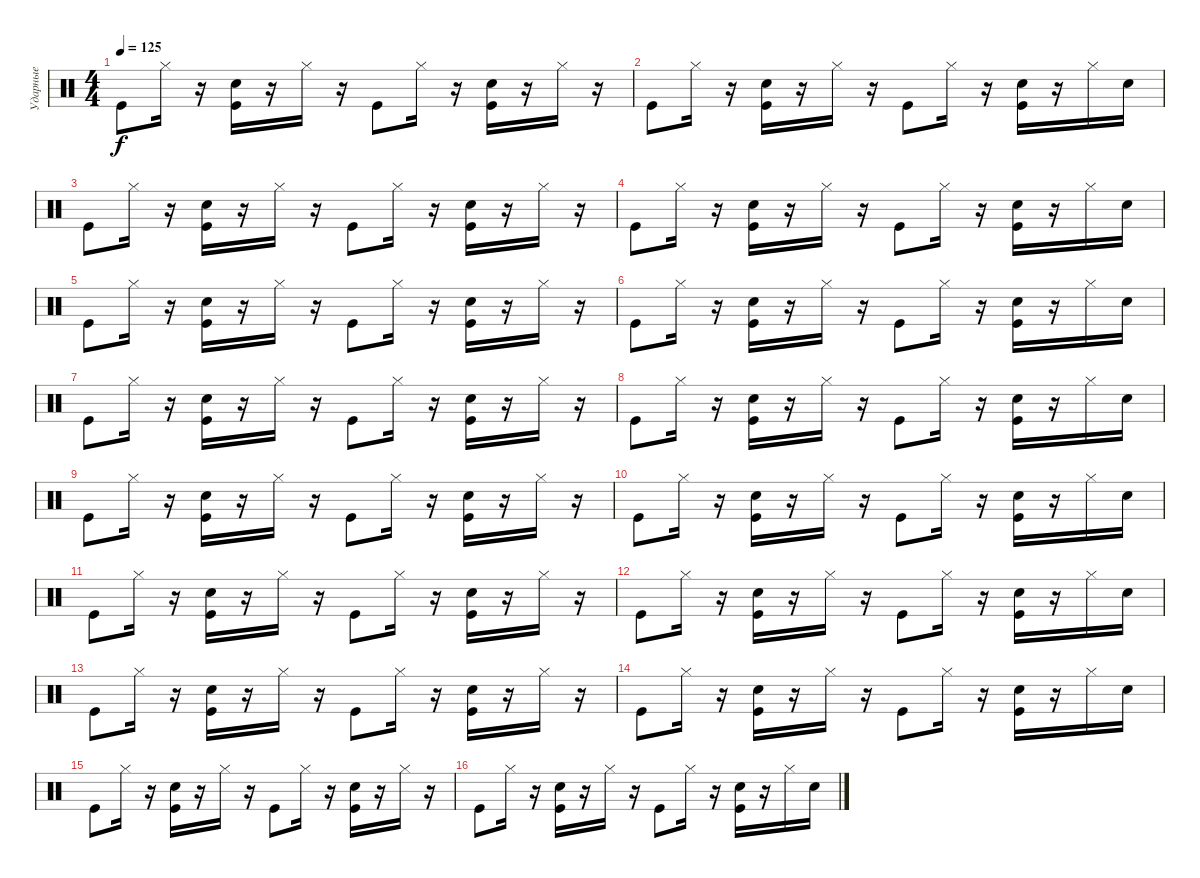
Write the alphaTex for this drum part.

\track ("Ударные" "Ударные") {instrument percussion}
\staff {score}
\articulation defaults
\ts (4 4)
\tempo 125
\clef neutral
\ks c "Kick (hit)".8{dy f} "Hi-Hat (closed)".16
r.16 ("Snare (hit) 2" "Kick (hit)").16 r.16 "Hi-Hat (closed)".16 r.16 "Kick (hit)".8 "Hi-Hat (closed)".16 r.16 ("Snare (hit) 2" "Kick (hit)").16 r.16 "Hi-Hat (closed)".16 r.16 |
"Kick (hit)".8 "Hi-Hat (closed)".16 r.16 ("Snare (hit) 2" "Kick (hit)").16 r.16 "Hi-Hat (closed)".16 r.16 "Kick (hit)".8 "Hi-Hat (closed)".16 r.16 ("Snare (hit) 2" "Kick (hit)").16 r.16 "Hi-Hat (closed)".16 "Snare (hit) 2".16 |
"Kick (hit)".8 "Hi-Hat (closed)".16 r.16 ("Snare (hit) 2" "Kick (hit)").16 r.16 "Hi-Hat (closed)".16 r.16 "Kick (hit)".8 "Hi-Hat (closed)".16 r.16 ("Snare (hit) 2" "Kick (hit)").16 r.16 "Hi-Hat (closed)".16 r.16 |
"Kick (hit)".8 "Hi-Hat (closed)".16 r.16 ("Snare (hit) 2" "Kick (hit)").16 r.16 "Hi-Hat (closed)".16 r.16 "Kick (hit)".8 "Hi-Hat (closed)".16 r.16 ("Snare (hit) 2" "Kick (hit)").16 r.16 "Hi-Hat (closed)".16 "Snare (hit) 2".16 |
"Kick (hit)".8 "Hi-Hat (closed)".16 r.16 ("Snare (hit) 2" "Kick (hit)").16 r.16 "Hi-Hat (closed)".16 r.16 "Kick (hit)".8 "Hi-Hat (closed)".16 r.16 ("Snare (hit) 2" "Kick (hit)").16 r.16 "Hi-Hat (closed)".16 r.16 |
"Kick (hit)".8 "Hi-Hat (closed)".16 r.16 ("Snare (hit) 2" "Kick (hit)").16 r.16 "Hi-Hat (closed)".16 r.16 "Kick (hit)".8 "Hi-Hat (closed)".16 r.16 ("Snare (hit) 2" "Kick (hit)").16 r.16 "Hi-Hat (closed)".16 "Snare (hit) 2".16 |
"Kick (hit)".8 "Hi-Hat (closed)".16 r.16 ("Snare (hit) 2" "Kick (hit)").16 r.16 "Hi-Hat (closed)".16 r.16 "Kick (hit)".8 "Hi-Hat (closed)".16 r.16 ("Snare (hit) 2" "Kick (hit)").16 r.16 "Hi-Hat (closed)".16 r.16 |
"Kick (hit)".8 "Hi-Hat (closed)".16 r.16 ("Snare (hit) 2" "Kick (hit)").16 r.16 "Hi-Hat (closed)".16 r.16 "Kick (hit)".8 "Hi-Hat (closed)".16 r.16 ("Snare (hit) 2" "Kick (hit)").16 r.16 "Hi-Hat (closed)".16 "Snare (hit) 2".16 |
"Kick (hit)".8 "Hi-Hat (closed)".16 r.16 ("Snare (hit) 2" "Kick (hit)").16 r.16 "Hi-Hat (closed)".16 r.16 "Kick (hit)".8 "Hi-Hat (closed)".16 r.16 ("Snare (hit) 2" "Kick (hit)").16 r.16 "Hi-Hat (closed)".16 r.16 |
"Kick (hit)".8 "Hi-Hat (closed)".16 r.16 ("Snare (hit) 2" "Kick (hit)").16 r.16 "Hi-Hat (closed)".16 r.16 "Kick (hit)".8 "Hi-Hat (closed)".16 r.16 ("Snare (hit) 2" "Kick (hit)").16 r.16 "Hi-Hat (closed)".16 "Snare (hit) 2".16 |
"Kick (hit)".8 "Hi-Hat (closed)".16 r.16 ("Snare (hit) 2" "Kick (hit)").16 r.16 "Hi-Hat (closed)".16 r.16 "Kick (hit)".8 "Hi-Hat (closed)".16 r.16 ("Snare (hit) 2" "Kick (hit)").16 r.16 "Hi-Hat (closed)".16 r.16 |
"Kick (hit)".8 "Hi-Hat (closed)".16 r.16 ("Snare (hit) 2" "Kick (hit)").16 r.16 "Hi-Hat (closed)".16 r.16 "Kick (hit)".8 "Hi-Hat (closed)".16 r.16 ("Snare (hit) 2" "Kick (hit)").16 r.16 "Hi-Hat (closed)".16 "Snare (hit) 2".16 |
"Kick (hit)".8 "Hi-Hat (closed)".16 r.16 ("Snare (hit) 2" "Kick (hit)").16 r.16 "Hi-Hat (closed)".16 r.16 "Kick (hit)".8 "Hi-Hat (closed)".16 r.16 ("Snare (hit) 2" "Kick (hit)").16 r.16 "Hi-Hat (closed)".16 r.16 |
"Kick (hit)".8 "Hi-Hat (closed)".16 r.16 ("Snare (hit) 2" "Kick (hit)").16 r.16 "Hi-Hat (closed)".16 r.16 "Kick (hit)".8 "Hi-Hat (closed)".16 r.16 ("Snare (hit) 2" "Kick (hit)").16 r.16 "Hi-Hat (closed)".16 "Snare (hit) 2".16 |
"Kick (hit)".8 "Hi-Hat (closed)".16 r.16 ("Snare (hit) 2" "Kick (hit)").16 r.16 "Hi-Hat (closed)".16 r.16 "Kick (hit)".8 "Hi-Hat (closed)".16 r.16 ("Snare (hit) 2" "Kick (hit)").16 r.16 "Hi-Hat (closed)".16 r.16 |
"Kick (hit)".8 "Hi-Hat (closed)".16 r.16 ("Snare (hit) 2" "Kick (hit)").16 r.16 "Hi-Hat (closed)".16 r.16 "Kick (hit)".8 "Hi-Hat (closed)".16 r.16 ("Snare (hit) 2" "Kick (hit)").16 r.16 "Hi-Hat (closed)".16 "Snare (hit) 2".16
